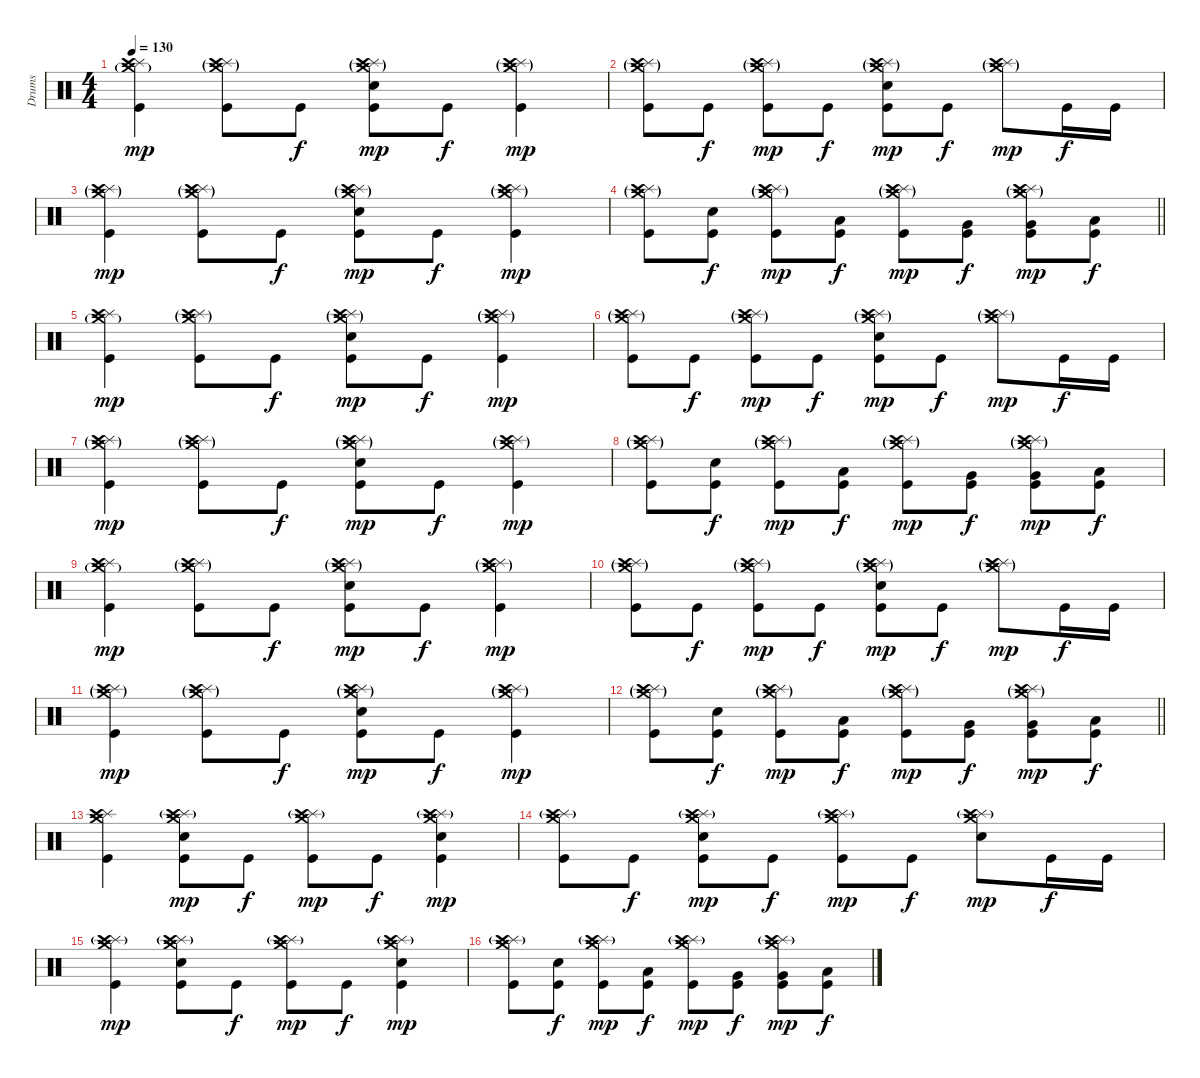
\track ("Drums" "Drums") {instrument percussion}
\staff {score}
\articulation defaults
\ts (4 4)
\tempo 130
\clef neutral
\ks c
("Splash (hit)" "Crash medium (hit)"{g} "Crash high (hit)" "Kick (hit)").4{dy mp} ("Splash (hit)" "Crash medium (hit)"{g} "Crash high (hit)"{g} "Kick (hit)").8 "Kick (hit)".8{dy f} ("Splash (hit)" "Crash medium (hit)"{g} "Crash high (hit)"{g} "Electric Snare (hit)" "Kick (hit)").8{dy mp} "Kick (hit)".8{dy f} ("Splash (hit)" "Crash medium (hit)"{g} "Crash high (hit)"{g} "Kick (hit)").4{dy mp} |
("Splash (hit)" "Crash medium (hit)"{g} "Crash high (hit)"{g} "Kick (hit)").8 "Kick (hit)".8{dy f} ("Splash (hit)" "Crash medium (hit)"{g} "Crash high (hit)"{g} "Kick (hit)").8{dy mp} "Kick (hit)".8{dy f} ("Splash (hit)" "Crash medium (hit)"{g} "Crash high (hit)"{g} "Electric Snare (hit)" "Kick (hit)").8{dy mp} "Kick (hit)".8{dy f} ("Splash (hit)" "Crash medium (hit)"{g} "Crash high (hit)"{g}).8{dy mp} "Kick (hit)".16{dy f} "Kick (hit)".16 |
("Splash (hit)" "Crash medium (hit)"{g} "Crash high (hit)"{g} "Kick (hit)").4{dy mp} ("Splash (hit)" "Crash medium (hit)"{g} "Crash high (hit)"{g} "Kick (hit)").8 "Kick (hit)".8{dy f} ("Splash (hit)" "Crash medium (hit)"{g} "Crash high (hit)"{g} "Electric Snare (hit)" "Kick (hit)").8{dy mp} "Kick (hit)".8{dy f} ("Splash (hit)" "Crash medium (hit)"{g} "Crash high (hit)"{g} "Kick (hit)").4{dy mp} |
\barLineRight lightlight
("Splash (hit)" "Crash medium (hit)"{g} "Crash high (hit)"{g} "Kick (hit)").8 ("Electric Snare (hit)" "Kick (hit)").8{dy f} ("Splash (hit)" "Crash medium (hit)"{g} "Crash high (hit)"{g} "Kick (hit)").8{dy mp} ("Low Floor Tom (hit)" "Kick (hit)").8{dy f} ("Splash (hit)" "Crash medium (hit)"{g} "Crash high (hit)"{g} "Kick (hit)").8{dy mp} ("Very Low Tom (hit)" "Kick (hit)").8{dy f} ("Splash (hit)" "Crash medium (hit)"{g} "Crash high (hit)"{g} "Very Low Tom (hit)" "Kick (hit)").8{dy mp} ("Low Floor Tom (hit)" "Kick (hit)").8{dy f} |
\section ("" "")
("Splash (hit)" "Crash medium (hit)"{g} "Crash high (hit)" "Kick (hit)").4{dy mp} ("Splash (hit)" "Crash medium (hit)"{g} "Crash high (hit)"{g} "Kick (hit)").8 "Kick (hit)".8{dy f} ("Splash (hit)" "Crash medium (hit)"{g} "Crash high (hit)"{g} "Electric Snare (hit)" "Kick (hit)").8{dy mp} "Kick (hit)".8{dy f} ("Splash (hit)" "Crash medium (hit)"{g} "Crash high (hit)"{g} "Kick (hit)").4{dy mp} |
("Splash (hit)" "Crash medium (hit)"{g} "Crash high (hit)"{g} "Kick (hit)").8 "Kick (hit)".8{dy f} ("Splash (hit)" "Crash medium (hit)"{g} "Crash high (hit)"{g} "Kick (hit)").8{dy mp} "Kick (hit)".8{dy f} ("Splash (hit)" "Crash medium (hit)"{g} "Crash high (hit)"{g} "Electric Snare (hit)" "Kick (hit)").8{dy mp} "Kick (hit)".8{dy f} ("Splash (hit)" "Crash medium (hit)"{g} "Crash high (hit)"{g}).8{dy mp} "Kick (hit)".16{dy f} "Kick (hit)".16 |
("Splash (hit)" "Crash medium (hit)"{g} "Crash high (hit)"{g} "Kick (hit)").4{dy mp} ("Splash (hit)" "Crash medium (hit)"{g} "Crash high (hit)"{g} "Kick (hit)").8 "Kick (hit)".8{dy f} ("Splash (hit)" "Crash medium (hit)"{g} "Crash high (hit)"{g} "Electric Snare (hit)" "Kick (hit)").8{dy mp} "Kick (hit)".8{dy f} ("Splash (hit)" "Crash medium (hit)"{g} "Crash high (hit)"{g} "Kick (hit)").4{dy mp} |
("Splash (hit)" "Crash medium (hit)"{g} "Crash high (hit)"{g} "Kick (hit)").8 ("Electric Snare (hit)" "Kick (hit)").8{dy f} ("Splash (hit)" "Crash medium (hit)"{g} "Crash high (hit)"{g} "Kick (hit)").8{dy mp} ("Low Floor Tom (hit)" "Kick (hit)").8{dy f} ("Splash (hit)" "Crash medium (hit)"{g} "Crash high (hit)"{g} "Kick (hit)").8{dy mp} ("Very Low Tom (hit)" "Kick (hit)").8{dy f} ("Splash (hit)" "Crash medium (hit)"{g} "Crash high (hit)"{g} "Very Low Tom (hit)" "Kick (hit)").8{dy mp} ("Low Floor Tom (hit)" "Kick (hit)").8{dy f} |
("Splash (hit)" "Crash medium (hit)"{g} "Crash high (hit)" "Kick (hit)").4{dy mp} ("Splash (hit)" "Crash medium (hit)"{g} "Crash high (hit)"{g} "Kick (hit)").8 "Kick (hit)".8{dy f} ("Splash (hit)" "Crash medium (hit)"{g} "Crash high (hit)"{g} "Electric Snare (hit)" "Kick (hit)").8{dy mp} "Kick (hit)".8{dy f} ("Splash (hit)" "Crash medium (hit)"{g} "Crash high (hit)"{g} "Kick (hit)").4{dy mp} |
("Splash (hit)" "Crash medium (hit)"{g} "Crash high (hit)"{g} "Kick (hit)").8 "Kick (hit)".8{dy f} ("Splash (hit)" "Crash medium (hit)"{g} "Crash high (hit)"{g} "Kick (hit)").8{dy mp} "Kick (hit)".8{dy f} ("Splash (hit)" "Crash medium (hit)"{g} "Crash high (hit)"{g} "Electric Snare (hit)" "Kick (hit)").8{dy mp} "Kick (hit)".8{dy f} ("Splash (hit)" "Crash medium (hit)"{g} "Crash high (hit)"{g}).8{dy mp} "Kick (hit)".16{dy f} "Kick (hit)".16 |
("Splash (hit)" "Crash medium (hit)"{g} "Crash high (hit)"{g} "Kick (hit)").4{dy mp} ("Splash (hit)" "Crash medium (hit)"{g} "Crash high (hit)"{g} "Kick (hit)").8 "Kick (hit)".8{dy f} ("Splash (hit)" "Crash medium (hit)"{g} "Crash high (hit)"{g} "Electric Snare (hit)" "Kick (hit)").8{dy mp} "Kick (hit)".8{dy f} ("Splash (hit)" "Crash medium (hit)"{g} "Crash high (hit)"{g} "Kick (hit)").4{dy mp} |
\barLineRight lightlight
("Splash (hit)" "Crash medium (hit)"{g} "Crash high (hit)"{g} "Kick (hit)").8 ("Electric Snare (hit)" "Kick (hit)").8{dy f} ("Splash (hit)" "Crash medium (hit)"{g} "Crash high (hit)"{g} "Kick (hit)").8{dy mp} ("Low Floor Tom (hit)" "Kick (hit)").8{dy f} ("Splash (hit)" "Crash medium (hit)"{g} "Crash high (hit)"{g} "Kick (hit)").8{dy mp} ("Very Low Tom (hit)" "Kick (hit)").8{dy f} ("Splash (hit)" "Crash medium (hit)"{g} "Crash high (hit)"{g} "Very Low Tom (hit)" "Kick (hit)").8{dy mp} ("Low Floor Tom (hit)" "Kick (hit)").8{dy f} |
\section ("" "")
("Splash (hit)" "Crash medium (hit)" "Crash high (hit)" "Kick (hit)").4 ("Splash (hit)" "Crash medium (hit)" "Crash high (hit)"{g} "Electric Snare (hit)" "Kick (hit)").8{dy mp} "Kick (hit)".8{dy f} ("Splash (hit)" "Crash medium (hit)" "Crash high (hit)"{g} "Kick (hit)").8{dy mp} "Kick (hit)".8{dy f} ("Splash (hit)" "Crash medium (hit)" "Crash high (hit)"{g} "Electric Snare (hit)" "Kick (hit)").4{dy mp} |
("Splash (hit)" "Crash medium (hit)" "Crash high (hit)"{g} "Kick (hit)").8 "Kick (hit)".8{dy f} ("Splash (hit)" "Crash medium (hit)" "Crash high (hit)"{g} "Electric Snare (hit)" "Kick (hit)").8{dy mp} "Kick (hit)".8{dy f} ("Splash (hit)" "Crash medium (hit)" "Crash high (hit)"{g} "Kick (hit)").8{dy mp} "Kick (hit)".8{dy f} ("Splash (hit)" "Crash medium (hit)" "Crash high (hit)"{g} "Electric Snare (hit)").8{dy mp} "Kick (hit)".16{dy f} "Kick (hit)".16 |
("Splash (hit)" "Crash medium (hit)" "Crash high (hit)"{g} "Kick (hit)").4{dy mp} ("Splash (hit)" "Crash medium (hit)" "Crash high (hit)"{g} "Electric Snare (hit)" "Kick (hit)").8 "Kick (hit)".8{dy f} ("Splash (hit)" "Crash medium (hit)" "Crash high (hit)"{g} "Kick (hit)").8{dy mp} "Kick (hit)".8{dy f} ("Splash (hit)" "Crash medium (hit)" "Crash high (hit)"{g} "Electric Snare (hit)" "Kick (hit)").4{dy mp} |
("Splash (hit)" "Crash medium (hit)" "Crash high (hit)"{g} "Kick (hit)").8 ("Electric Snare (hit)" "Kick (hit)").8{dy f} ("Splash (hit)" "Crash medium (hit)" "Crash high (hit)"{g} "Kick (hit)").8{dy mp} ("Low Floor Tom (hit)" "Kick (hit)").8{dy f} ("Splash (hit)" "Crash medium (hit)" "Crash high (hit)"{g} "Kick (hit)").8{dy mp} ("Very Low Tom (hit)" "Kick (hit)").8{dy f} ("Splash (hit)" "Crash medium (hit)" "Crash high (hit)"{g} "Very Low Tom (hit)" "Kick (hit)").8{dy mp} ("Low Floor Tom (hit)" "Kick (hit)").8{dy f}
